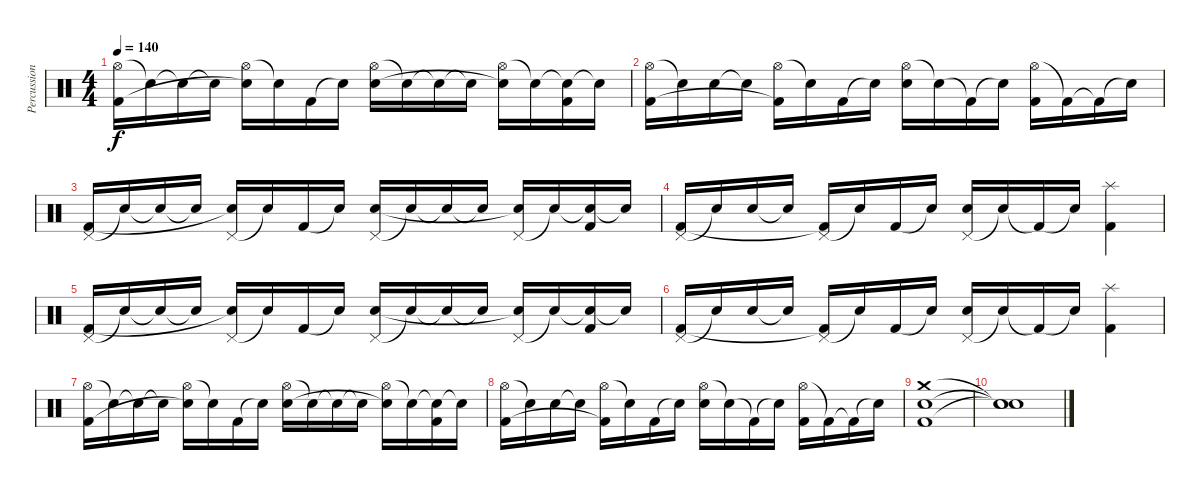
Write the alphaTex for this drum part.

\track ("Percussion" "Percussion") {instrument percussion}
\staff {score}
\articulation defaults
\ts (4 4)
\tempo 140
\clef neutral
\ks c
("Hi-Hat (open)" "Kick (hit) 2").16{dy f} "Snare (hit)"{t}.16 "Snare (hit)"{t}.16 "Snare (hit)"{t}.16 ("Hi-Hat (open)" "Snare (hit)"{t}).16 "Snare (hit)"{t}.16 "Kick (hit) 2".16 "Snare (hit)"{t}.16 ("Hi-Hat (open)" "Electric Snare (hit)").16 "Snare (hit)"{t}.16 "Snare (hit)"{t}.16 "Snare (hit)"{t}.16 ("Hi-Hat (open)" "Snare (hit)"{t}).16 "Snare (hit)"{t}.16 ("Snare (hit)"{t} "Kick (hit) 2").16 "Snare (hit)"{t}.16 |
("Hi-Hat (open)" "Kick (hit) 2").16 "Snare (hit)"{t}.16 "Electric Snare (hit)".16 "Snare (hit)"{t}.16 ("Hi-Hat (open)" "Kick (hit) 2"{t}).16 "Snare (hit)"{t}.16 "Kick (hit) 2".16 "Snare (hit)"{t}.16 ("Hi-Hat (open)" "Electric Snare (hit)").16 "Snare (hit)"{t}.16 "Kick (hit) 2"{t}.16 "Snare (hit)"{t}.16 ("Hi-Hat (open)" "Kick (hit) 2").16 "Kick (hit) 2"{t}.16 "Kick (hit) 2"{t}.16 "Snare (hit)"{t}.16 |
("Pedal Hi-Hat (hit)" "Kick (hit) 2").16 "Snare (hit)"{t}.16 "Snare (hit)"{t}.16 "Snare (hit)"{t}.16 ("Pedal Hi-Hat (hit)" "Snare (hit)"{t}).16 "Snare (hit)"{t}.16 "Kick (hit) 2".16 "Snare (hit)"{t}.16 ("Pedal Hi-Hat (hit)" "Electric Snare (hit)").16 "Snare (hit)"{t}.16 "Snare (hit)"{t}.16 "Snare (hit)"{t}.16 ("Pedal Hi-Hat (hit)" "Snare (hit)"{t}).16 "Snare (hit)"{t}.16 ("Snare (hit)"{t} "Kick (hit) 2").16 "Snare (hit)"{t}.16 |
("Pedal Hi-Hat (hit)" "Kick (hit) 2").16 "Snare (hit)"{t}.16 "Electric Snare (hit)".16 "Snare (hit)"{t}.16 ("Pedal Hi-Hat (hit)" "Kick (hit) 2"{t}).16 "Snare (hit)"{t}.16 "Kick (hit) 2".16 "Snare (hit)"{t}.16 ("Pedal Hi-Hat (hit)" "Electric Snare (hit)").16 "Snare (hit)"{t}.16 "Kick (hit) 2"{t}.16 "Snare (hit)"{t}.16 ("Splash (hit)" "Kick (hit) 2").4 |
("Pedal Hi-Hat (hit)" "Kick (hit) 2").16 "Snare (hit)"{t}.16 "Snare (hit)"{t}.16 "Snare (hit)"{t}.16 ("Pedal Hi-Hat (hit)" "Snare (hit)"{t}).16 "Snare (hit)"{t}.16 "Kick (hit) 2".16 "Snare (hit)"{t}.16 ("Pedal Hi-Hat (hit)" "Electric Snare (hit)").16 "Snare (hit)"{t}.16 "Snare (hit)"{t}.16 "Snare (hit)"{t}.16 ("Pedal Hi-Hat (hit)" "Snare (hit)"{t}).16 "Snare (hit)"{t}.16 ("Snare (hit)"{t} "Kick (hit) 2").16 "Snare (hit)"{t}.16 |
("Pedal Hi-Hat (hit)" "Kick (hit) 2").16 "Snare (hit)"{t}.16 "Electric Snare (hit)".16 "Snare (hit)"{t}.16 ("Pedal Hi-Hat (hit)" "Kick (hit) 2"{t}).16 "Snare (hit)"{t}.16 "Kick (hit) 2".16 "Snare (hit)"{t}.16 ("Pedal Hi-Hat (hit)" "Electric Snare (hit)").16 "Snare (hit)"{t}.16 "Kick (hit) 2"{t}.16 "Snare (hit)"{t}.16 ("Splash (hit)" "Kick (hit) 2").4 |
("Hi-Hat (open)" "Kick (hit) 2").16 "Snare (hit)"{t}.16 "Snare (hit)"{t}.16 "Snare (hit)"{t}.16 ("Hi-Hat (open)" "Snare (hit)"{t}).16 "Snare (hit)"{t}.16 "Kick (hit) 2".16 "Snare (hit)"{t}.16 ("Hi-Hat (open)" "Electric Snare (hit)").16 "Snare (hit)"{t}.16 "Snare (hit)"{t}.16 "Snare (hit)"{t}.16 ("Hi-Hat (open)" "Snare (hit)"{t}).16 "Snare (hit)"{t}.16 ("Snare (hit)"{t} "Kick (hit) 2").16 "Snare (hit)"{t}.16 |
("Hi-Hat (open)" "Kick (hit) 2").16 "Snare (hit)"{t}.16 "Electric Snare (hit)".16 "Snare (hit)"{t}.16 ("Hi-Hat (open)" "Kick (hit) 2"{t}).16 "Snare (hit)"{t}.16 "Kick (hit) 2".16 "Snare (hit)"{t}.16 ("Hi-Hat (open)" "Electric Snare (hit)").16 "Snare (hit)"{t}.16 "Kick (hit) 2"{t}.16 "Snare (hit)"{t}.16 ("Hi-Hat (open)" "Kick (hit) 2").16 "Kick (hit) 2"{t}.16 "Kick (hit) 2"{t}.16 "Snare (hit)"{t}.16 |
("Crash medium (hit)" "Electric Snare (hit)" "Kick (hit) 2").1 |
("Snare (hit)"{t} "Snare (hit)"{t} "Snare (hit)"{t}).1
